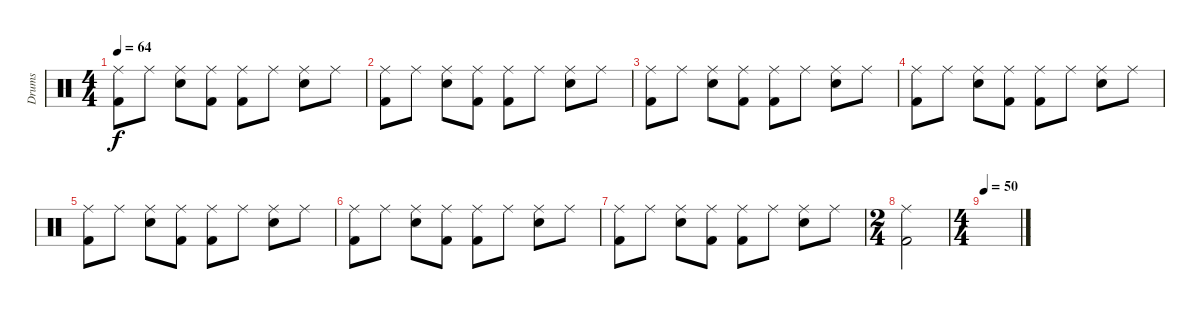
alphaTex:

\track ("Drums" "Drums") {instrument percussion}
\staff {score}
\articulation defaults
\ts (4 4)
\tempo 64
\clef neutral
\ks c
("Ride (middle)" "Kick (hit) 2").8{dy f} "Ride (middle)".8 ("Ride (middle)" "Snare (hit) 2").8 ("Ride (middle)" "Kick (hit) 2").8 ("Ride (middle)" "Kick (hit) 2").8 "Ride (middle)".8 ("Ride (middle)" "Snare (hit) 2").8 "Ride (middle)".8 |
("Ride (middle)" "Kick (hit) 2").8 "Ride (middle)".8 ("Ride (middle)" "Snare (hit) 2").8 ("Ride (middle)" "Kick (hit) 2").8 ("Ride (middle)" "Kick (hit) 2").8 "Ride (middle)".8 ("Ride (middle)" "Snare (hit) 2").8 "Ride (middle)".8 |
("Ride (middle)" "Kick (hit) 2").8 "Ride (middle)".8 ("Ride (middle)" "Snare (hit) 2").8 ("Ride (middle)" "Kick (hit) 2").8 ("Ride (middle)" "Kick (hit) 2").8 "Ride (middle)".8 ("Ride (middle)" "Snare (hit) 2").8 "Ride (middle)".8 |
("Ride (middle)" "Kick (hit) 2").8 "Ride (middle)".8 ("Ride (middle)" "Snare (hit) 2").8 ("Ride (middle)" "Kick (hit) 2").8 ("Ride (middle)" "Kick (hit) 2").8 "Ride (middle)".8 ("Ride (middle)" "Snare (hit) 2").8 "Ride (middle)".8 |
("Ride (middle)" "Kick (hit) 2").8 "Ride (middle)".8 ("Ride (middle)" "Snare (hit) 2").8 ("Ride (middle)" "Kick (hit) 2").8 ("Ride (middle)" "Kick (hit) 2").8 "Ride (middle)".8 ("Ride (middle)" "Snare (hit) 2").8 "Ride (middle)".8 |
("Ride (middle)" "Kick (hit) 2").8 "Ride (middle)".8 ("Ride (middle)" "Snare (hit) 2").8 ("Ride (middle)" "Kick (hit) 2").8 ("Ride (middle)" "Kick (hit) 2").8 "Ride (middle)".8 ("Ride (middle)" "Snare (hit) 2").8 "Ride (middle)".8 |
("Ride (middle)" "Kick (hit) 2").8 "Ride (middle)".8 ("Ride (middle)" "Snare (hit) 2").8 ("Ride (middle)" "Kick (hit) 2").8 ("Ride (middle)" "Kick (hit) 2").8 "Ride (middle)".8 ("Ride (middle)" "Snare (hit) 2").8 "Ride (middle)".8 |
\ts (2 4)
("Ride (middle)" "Kick (hit) 2").2 |
\ts (4 4)
\tempo 50
